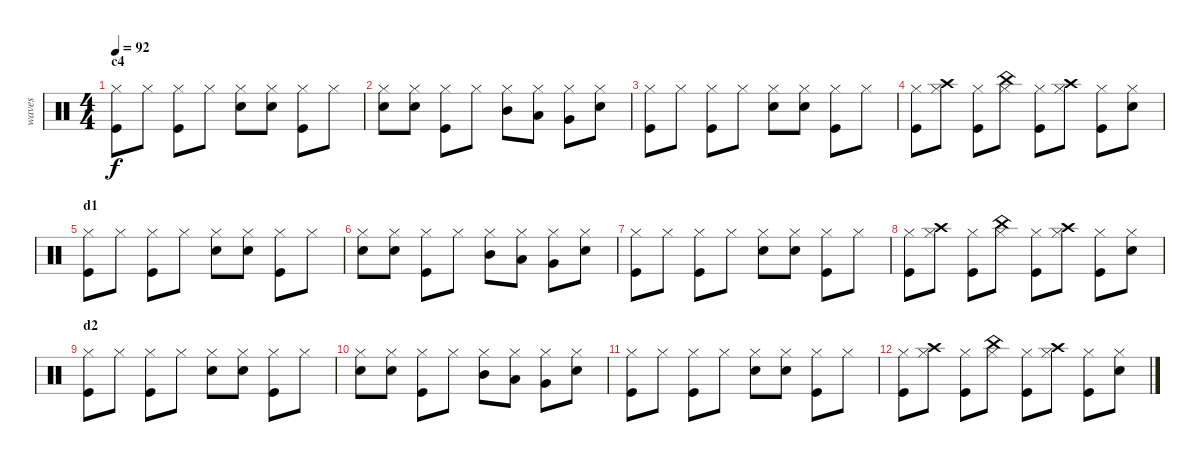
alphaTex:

\track ("waves" "waves") {instrument percussion}
\staff {score}
\articulation defaults
\ts (4 4)
\section ("" "c4")
\tempo 92
\clef neutral
\ks c
("Hi-Hat (closed)" "Kick (hit)").8{dy f} "Hi-Hat (closed)".8 ("Hi-Hat (closed)" "Kick (hit)").8 "Hi-Hat (closed)".8 ("Hi-Hat (closed)" "Electric Snare (hit)").8 ("Hi-Hat (closed)" "Electric Snare (hit)").8 ("Hi-Hat (closed)" "Kick (hit)").8 "Hi-Hat (closed)".8 |
("Hi-Hat (closed)" "Electric Snare (hit)").8 ("Hi-Hat (closed)" "Electric Snare (hit)").8 ("Hi-Hat (closed)" "Kick (hit)").8 "Hi-Hat (closed)".8 ("Mid Tom (hit)" "Hi-Hat (closed)").8 ("Low Tom (hit)" "Hi-Hat (closed)").8 ("Very Low Tom (hit)" "Hi-Hat (closed)").8 ("Electric Snare (hit)" "Hi-Hat (closed)").8 |
("Hi-Hat (closed)" "Kick (hit)").8 "Hi-Hat (closed)".8 ("Hi-Hat (closed)" "Kick (hit)").8 "Hi-Hat (closed)".8 ("Hi-Hat (closed)" "Electric Snare (hit)").8 ("Hi-Hat (closed)" "Electric Snare (hit)").8 ("Hi-Hat (closed)" "Kick (hit)").8 "Hi-Hat (closed)".8 |
("Hi-Hat (closed)" "Kick (hit)").8 ("Crash high (hit)" "Hi-Hat (closed)").8 ("Hi-Hat (closed)" "Kick (hit)").8 ("China (hit)" "Hi-Hat (closed)").8 ("Hi-Hat (closed)" "Kick (hit)").8 ("Crash high (hit)" "Hi-Hat (closed)").8 ("Hi-Hat (closed)" "Kick (hit)").8 ("Hi-Hat (closed)" "Electric Snare (hit)").8 |
\section ("" "d1")
("Hi-Hat (closed)" "Kick (hit)").8 "Hi-Hat (closed)".8 ("Hi-Hat (closed)" "Kick (hit)").8 "Hi-Hat (closed)".8 ("Hi-Hat (closed)" "Electric Snare (hit)").8 ("Hi-Hat (closed)" "Electric Snare (hit)").8 ("Hi-Hat (closed)" "Kick (hit)").8 "Hi-Hat (closed)".8 |
("Hi-Hat (closed)" "Electric Snare (hit)").8 ("Hi-Hat (closed)" "Electric Snare (hit)").8 ("Hi-Hat (closed)" "Kick (hit)").8 "Hi-Hat (closed)".8 ("Mid Tom (hit)" "Hi-Hat (closed)").8 ("Low Tom (hit)" "Hi-Hat (closed)").8 ("Very Low Tom (hit)" "Hi-Hat (closed)").8 ("Electric Snare (hit)" "Hi-Hat (closed)").8 |
("Hi-Hat (closed)" "Kick (hit)").8 "Hi-Hat (closed)".8 ("Hi-Hat (closed)" "Kick (hit)").8 "Hi-Hat (closed)".8 ("Hi-Hat (closed)" "Electric Snare (hit)").8 ("Hi-Hat (closed)" "Electric Snare (hit)").8 ("Hi-Hat (closed)" "Kick (hit)").8 "Hi-Hat (closed)".8 |
("Hi-Hat (closed)" "Kick (hit)").8 ("Crash high (hit)" "Hi-Hat (closed)").8 ("Hi-Hat (closed)" "Kick (hit)").8 ("China (hit)" "Hi-Hat (closed)").8 ("Hi-Hat (closed)" "Kick (hit)").8 ("Crash high (hit)" "Hi-Hat (closed)").8 ("Hi-Hat (closed)" "Kick (hit)").8 ("Hi-Hat (closed)" "Electric Snare (hit)").8 |
\section ("" "d2")
("Hi-Hat (closed)" "Kick (hit)").8 "Hi-Hat (closed)".8 ("Hi-Hat (closed)" "Kick (hit)").8 "Hi-Hat (closed)".8 ("Hi-Hat (closed)" "Electric Snare (hit)").8 ("Hi-Hat (closed)" "Electric Snare (hit)").8 ("Hi-Hat (closed)" "Kick (hit)").8 "Hi-Hat (closed)".8 |
("Hi-Hat (closed)" "Electric Snare (hit)").8 ("Hi-Hat (closed)" "Electric Snare (hit)").8 ("Hi-Hat (closed)" "Kick (hit)").8 "Hi-Hat (closed)".8 ("Mid Tom (hit)" "Hi-Hat (closed)").8 ("Low Tom (hit)" "Hi-Hat (closed)").8 ("Very Low Tom (hit)" "Hi-Hat (closed)").8 ("Electric Snare (hit)" "Hi-Hat (closed)").8 |
("Hi-Hat (closed)" "Kick (hit)").8 "Hi-Hat (closed)".8 ("Hi-Hat (closed)" "Kick (hit)").8 "Hi-Hat (closed)".8 ("Hi-Hat (closed)" "Electric Snare (hit)").8 ("Hi-Hat (closed)" "Electric Snare (hit)").8 ("Hi-Hat (closed)" "Kick (hit)").8 "Hi-Hat (closed)".8 |
("Hi-Hat (closed)" "Kick (hit)").8 ("Crash high (hit)" "Hi-Hat (closed)").8 ("Hi-Hat (closed)" "Kick (hit)").8 ("China (hit)" "Hi-Hat (closed)").8 ("Hi-Hat (closed)" "Kick (hit)").8 ("Crash high (hit)" "Hi-Hat (closed)").8 ("Hi-Hat (closed)" "Kick (hit)").8 ("Hi-Hat (closed)" "Electric Snare (hit)").8
